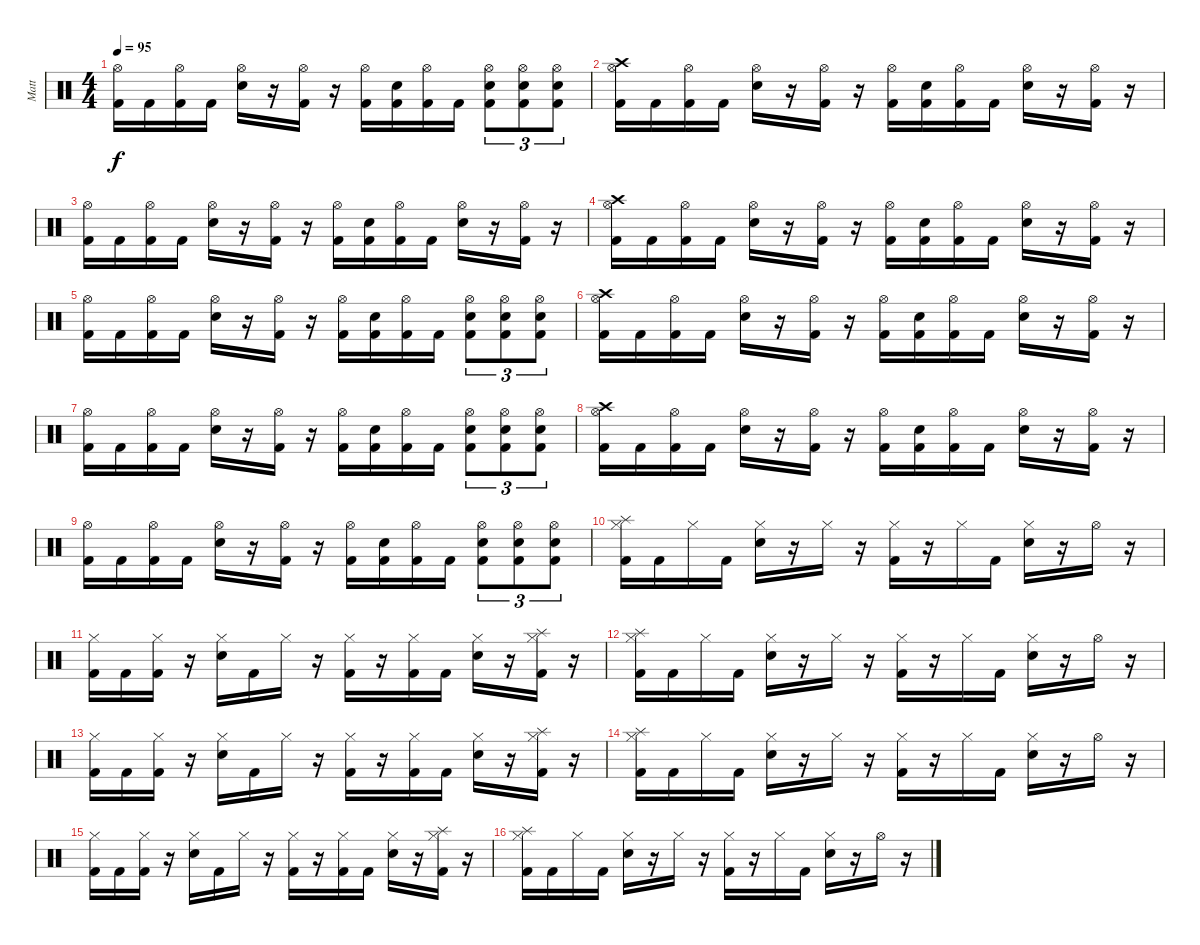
\track ("Matt" "Matt") {instrument percussion}
\staff {score}
\articulation defaults
\ts (4 4)
\tempo 95
\clef neutral
\ks c
("Hi-Hat (open)" "Kick (hit) 2").16{dy f} "Kick (hit) 2".16 ("Hi-Hat (open)" "Kick (hit) 2").16 "Kick (hit) 2".16 ("Hi-Hat (open)" "Snare (hit) 2").16 r.16 ("Hi-Hat (open)" "Kick (hit) 2").16 r.16 ("Hi-Hat (open)" "Kick (hit) 2").16 ("Snare (hit) 2" "Kick (hit) 2").16 ("Hi-Hat (open)" "Kick (hit) 2").16 "Kick (hit) 2".16 ("Hi-Hat (open)" "Kick (hit) 2" "Snare (hit) 2").8{tu (3 2)} ("Hi-Hat (open)" "Kick (hit) 2" "Snare (hit) 2").8{tu (3 2)} ("Hi-Hat (open)" "Kick (hit) 2" "Snare (hit) 2").8{tu (3 2)} |
("Crash high (hit)" "Hi-Hat (open)" "Kick (hit) 2").16 "Kick (hit) 2".16 ("Hi-Hat (open)" "Kick (hit) 2").16 "Kick (hit) 2".16 ("Hi-Hat (open)" "Snare (hit) 2").16 r.16 ("Hi-Hat (open)" "Kick (hit) 2").16 r.16 ("Hi-Hat (open)" "Kick (hit) 2").16 ("Snare (hit) 2" "Kick (hit) 2").16 ("Hi-Hat (open)" "Kick (hit) 2").16 "Kick (hit) 2".16 ("Hi-Hat (open)" "Snare (hit) 2").16 r.16 ("Hi-Hat (open)" "Kick (hit) 2").16 r.16 |
("Hi-Hat (open)" "Kick (hit) 2").16 "Kick (hit) 2".16 ("Hi-Hat (open)" "Kick (hit) 2").16 "Kick (hit) 2".16 ("Hi-Hat (open)" "Snare (hit) 2").16 r.16 ("Hi-Hat (open)" "Kick (hit) 2").16 r.16 ("Hi-Hat (open)" "Kick (hit) 2").16 ("Snare (hit) 2" "Kick (hit) 2").16 ("Hi-Hat (open)" "Kick (hit) 2").16 "Kick (hit) 2".16 ("Hi-Hat (open)" "Snare (hit) 2").16 r.16 ("Hi-Hat (open)" "Kick (hit) 2").16 r.16 |
("Crash high (hit)" "Hi-Hat (open)" "Kick (hit) 2").16 "Kick (hit) 2".16 ("Hi-Hat (open)" "Kick (hit) 2").16 "Kick (hit) 2".16 ("Hi-Hat (open)" "Snare (hit) 2").16 r.16 ("Hi-Hat (open)" "Kick (hit) 2").16 r.16 ("Hi-Hat (open)" "Kick (hit) 2").16 ("Snare (hit) 2" "Kick (hit) 2").16 ("Hi-Hat (open)" "Kick (hit) 2").16 "Kick (hit) 2".16 ("Hi-Hat (open)" "Snare (hit) 2").16 r.16 ("Hi-Hat (open)" "Kick (hit) 2").16 r.16 |
("Hi-Hat (open)" "Kick (hit) 2").16 "Kick (hit) 2".16 ("Hi-Hat (open)" "Kick (hit) 2").16 "Kick (hit) 2".16 ("Hi-Hat (open)" "Snare (hit) 2").16 r.16 ("Hi-Hat (open)" "Kick (hit) 2").16 r.16 ("Hi-Hat (open)" "Kick (hit) 2").16 ("Snare (hit) 2" "Kick (hit) 2").16 ("Hi-Hat (open)" "Kick (hit) 2").16 "Kick (hit) 2".16 ("Hi-Hat (open)" "Kick (hit) 2" "Snare (hit) 2").8{tu (3 2)} ("Hi-Hat (open)" "Kick (hit) 2" "Snare (hit) 2").8{tu (3 2)} ("Hi-Hat (open)" "Kick (hit) 2" "Snare (hit) 2").8{tu (3 2)} |
("Crash high (hit)" "Hi-Hat (open)" "Kick (hit) 2").16 "Kick (hit) 2".16 ("Hi-Hat (open)" "Kick (hit) 2").16 "Kick (hit) 2".16 ("Hi-Hat (open)" "Snare (hit) 2").16 r.16 ("Hi-Hat (open)" "Kick (hit) 2").16 r.16 ("Hi-Hat (open)" "Kick (hit) 2").16 ("Snare (hit) 2" "Kick (hit) 2").16 ("Hi-Hat (open)" "Kick (hit) 2").16 "Kick (hit) 2".16 ("Hi-Hat (open)" "Snare (hit) 2").16 r.16 ("Hi-Hat (open)" "Kick (hit) 2").16 r.16 |
("Hi-Hat (open)" "Kick (hit) 2").16 "Kick (hit) 2".16 ("Hi-Hat (open)" "Kick (hit) 2").16 "Kick (hit) 2".16 ("Hi-Hat (open)" "Snare (hit) 2").16 r.16 ("Hi-Hat (open)" "Kick (hit) 2").16 r.16 ("Hi-Hat (open)" "Kick (hit) 2").16 ("Snare (hit) 2" "Kick (hit) 2").16 ("Hi-Hat (open)" "Kick (hit) 2").16 "Kick (hit) 2".16 ("Hi-Hat (open)" "Kick (hit) 2" "Snare (hit) 2").8{tu (3 2)} ("Hi-Hat (open)" "Kick (hit) 2" "Snare (hit) 2").8{tu (3 2)} ("Hi-Hat (open)" "Kick (hit) 2" "Snare (hit) 2").8{tu (3 2)} |
("Crash high (hit)" "Hi-Hat (open)" "Kick (hit) 2").16 "Kick (hit) 2".16 ("Hi-Hat (open)" "Kick (hit) 2").16 "Kick (hit) 2".16 ("Hi-Hat (open)" "Snare (hit) 2").16 r.16 ("Hi-Hat (open)" "Kick (hit) 2").16 r.16 ("Hi-Hat (open)" "Kick (hit) 2").16 ("Snare (hit) 2" "Kick (hit) 2").16 ("Hi-Hat (open)" "Kick (hit) 2").16 "Kick (hit) 2".16 ("Hi-Hat (open)" "Snare (hit) 2").16 r.16 ("Hi-Hat (open)" "Kick (hit) 2").16 r.16 |
("Hi-Hat (open)" "Kick (hit) 2").16 "Kick (hit) 2".16 ("Hi-Hat (open)" "Kick (hit) 2").16 "Kick (hit) 2".16 ("Hi-Hat (open)" "Snare (hit) 2").16 r.16 ("Hi-Hat (open)" "Kick (hit) 2").16 r.16 ("Hi-Hat (open)" "Kick (hit) 2").16 ("Snare (hit) 2" "Kick (hit) 2").16 ("Hi-Hat (open)" "Kick (hit) 2").16 "Kick (hit) 2".16 ("Hi-Hat (open)" "Kick (hit) 2" "Snare (hit) 2").8{tu (3 2)} ("Hi-Hat (open)" "Kick (hit) 2" "Snare (hit) 2").8{tu (3 2)} ("Hi-Hat (open)" "Kick (hit) 2" "Snare (hit) 2").8{tu (3 2)} |
("Hi-Hat (closed)" "Splash (hit)" "Kick (hit) 2").16 "Kick (hit) 2".16 "Hi-Hat (closed)".16 "Kick (hit) 2".16 ("Hi-Hat (closed)" "Snare (hit) 2").16 r.16 "Hi-Hat (closed)".16 r.16 ("Hi-Hat (closed)" "Kick (hit) 2").16 r.16 "Hi-Hat (closed)".16 "Kick (hit) 2".16 ("Hi-Hat (closed)" "Snare (hit) 2").16 r.16 "Hi-Hat (open)".16 r.16 |
("Hi-Hat (closed)" "Kick (hit) 2").16 "Kick (hit) 2".16 ("Hi-Hat (closed)" "Kick (hit) 2").16 r.16 ("Hi-Hat (closed)" "Snare (hit) 2").16 "Kick (hit) 2".16 "Hi-Hat (closed)".16 r.16 ("Hi-Hat (closed)" "Kick (hit) 2").16 r.16 ("Hi-Hat (closed)" "Kick (hit) 2").16 "Kick (hit) 2".16 ("Hi-Hat (closed)" "Snare (hit) 2").16 r.16 ("Hi-Hat (closed)" "Kick (hit) 2" "Splash (hit)").16 r.16 |
("Hi-Hat (closed)" "Splash (hit)" "Kick (hit) 2").16 "Kick (hit) 2".16 "Hi-Hat (closed)".16 "Kick (hit) 2".16 ("Hi-Hat (closed)" "Snare (hit) 2").16 r.16 "Hi-Hat (closed)".16 r.16 ("Hi-Hat (closed)" "Kick (hit) 2").16 r.16 "Hi-Hat (closed)".16 "Kick (hit) 2".16 ("Hi-Hat (closed)" "Snare (hit) 2").16 r.16 "Hi-Hat (open)".16 r.16 |
("Hi-Hat (closed)" "Kick (hit) 2").16 "Kick (hit) 2".16 ("Hi-Hat (closed)" "Kick (hit) 2").16 r.16 ("Hi-Hat (closed)" "Snare (hit) 2").16 "Kick (hit) 2".16 "Hi-Hat (closed)".16 r.16 ("Hi-Hat (closed)" "Kick (hit) 2").16 r.16 ("Hi-Hat (closed)" "Kick (hit) 2").16 "Kick (hit) 2".16 ("Hi-Hat (closed)" "Snare (hit) 2").16 r.16 ("Hi-Hat (closed)" "Splash (hit)" "Kick (hit) 2").16 r.16 |
("Hi-Hat (closed)" "Splash (hit)" "Kick (hit) 2").16 "Kick (hit) 2".16 "Hi-Hat (closed)".16 "Kick (hit) 2".16 ("Hi-Hat (closed)" "Snare (hit) 2").16 r.16 "Hi-Hat (closed)".16 r.16 ("Hi-Hat (closed)" "Kick (hit) 2").16 r.16 "Hi-Hat (closed)".16 "Kick (hit) 2".16 ("Hi-Hat (closed)" "Snare (hit) 2").16 r.16 "Hi-Hat (open)".16 r.16 |
("Hi-Hat (closed)" "Kick (hit) 2").16 "Kick (hit) 2".16 ("Hi-Hat (closed)" "Kick (hit) 2").16 r.16 ("Hi-Hat (closed)" "Snare (hit) 2").16 "Kick (hit) 2".16 "Hi-Hat (closed)".16 r.16 ("Hi-Hat (closed)" "Kick (hit) 2").16 r.16 ("Hi-Hat (closed)" "Kick (hit) 2").16 "Kick (hit) 2".16 ("Hi-Hat (closed)" "Snare (hit) 2").16 r.16 ("Hi-Hat (closed)" "Kick (hit) 2" "Splash (hit)").16 r.16 |
("Hi-Hat (closed)" "Splash (hit)" "Kick (hit) 2").16 "Kick (hit) 2".16 "Hi-Hat (closed)".16 "Kick (hit) 2".16 ("Hi-Hat (closed)" "Snare (hit) 2").16 r.16 "Hi-Hat (closed)".16 r.16 ("Hi-Hat (closed)" "Kick (hit) 2").16 r.16 "Hi-Hat (closed)".16 "Kick (hit) 2".16 ("Hi-Hat (closed)" "Snare (hit) 2").16 r.16 "Hi-Hat (open)".16 r.16
